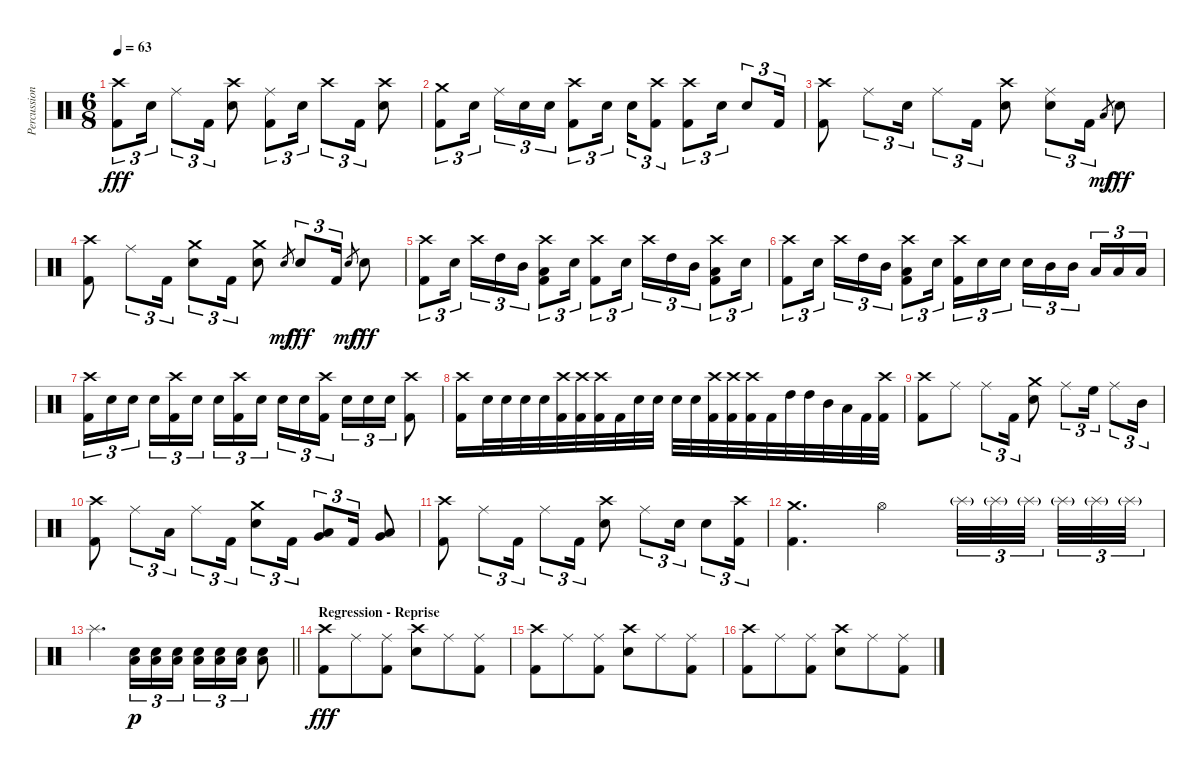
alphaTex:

\track ("Percussion" "Percussion") {instrument percussion}
\staff {score}
\articulation defaults
\ts (6 8)
\tempo 63
\clef neutral
\ks c
("Crash high (hit)" "Kick (hit) 2").8{tu (3 2) dy fff} "Electric Snare (hit)".16{tu (3 2)} "Ride (middle)".8{tu (3 2)} "Kick (hit) 2".16{tu (3 2)} ("Crash high (hit)" "Electric Snare (hit)").8 ("Ride (middle)" "Kick (hit) 2").8{tu (3 2)} "Electric Snare (hit)".16{tu (3 2)} "Crash high (hit)".8{tu (3 2)} "Kick (hit) 2".16{tu (3 2)} ("Crash high (hit)" "Electric Snare (hit)").8 |
("Crash medium (hit)" "Kick (hit) 2").8{tu (3 2)} "Electric Snare (hit)".16{tu (3 2) beam splitsecondary} "Ride (middle)".16{tu (3 2)} "Electric Snare (hit)".16{tu (3 2)} "Electric Snare (hit)".16{tu (3 2)} ("Crash high (hit)" "Kick (hit) 2").8{tu (3 2)} "Electric Snare (hit)".16{tu (3 2)} "Electric Snare (hit)".16{tu (3 2)} ("Crash high (hit)" "Kick (hit) 2").8{tu (3 2)} ("Crash high (hit)" "Kick (hit) 2").8{tu (3 2)} "Electric Snare (hit)".16{tu (3 2)} "Electric Snare (hit)".8{tu (3 2)} "Kick (hit) 2".16{tu (3 2)} |
("Crash high (hit)" "Kick (hit) 2").8 "Ride (middle)".8{tu (3 2)} "Electric Snare (hit)".16{tu (3 2)} "Ride (middle)".8{tu (3 2)} "Kick (hit) 2".16{tu (3 2)} ("Crash high (hit)" "Electric Snare (hit)").8 ("Ride (middle)" "Electric Snare (hit)").8{tu (3 2)} "Kick (hit) 2".16{tu (3 2)} "Low Tom (hit)".8{gr dy mf} "Electric Snare (hit)".8{dy fff} |
("Crash high (hit)" "Kick (hit) 2").8 "Ride (middle)".8{tu (3 2)} "Kick (hit) 2".16{tu (3 2)} ("Crash medium (hit)" "Electric Snare (hit)").8{tu (3 2)} "Kick (hit) 2".16{tu (3 2)} ("Crash medium (hit)" "Electric Snare (hit)").8 "Electric Snare (hit)".8{gr dy mf} "Electric Snare (hit)".8{tu (3 2) dy fff} "Kick (hit) 2".16{tu (3 2)} "Electric Snare (hit)".8{gr dy mf} "Electric Snare (hit)".8{dy fff} |
("Crash high (hit)" "Kick (hit) 2").8{tu (3 2)} "Electric Snare (hit)".16{tu (3 2) beam splitsecondary} "Crash high (hit)".16{tu (3 2)} "High Tom (hit)".16{tu (3 2)} "Mid Tom (hit)".16{tu (3 2)} ("Crash high (hit)" "Low Tom (hit)" "Kick (hit) 2").8{tu (3 2)} "Electric Snare (hit)".16{tu (3 2)} ("Crash high (hit)" "Kick (hit) 2").8{tu (3 2)} "Electric Snare (hit)".16{tu (3 2) beam splitsecondary} "Crash high (hit)".16{tu (3 2)} "High Tom (hit)".16{tu (3 2)} "Mid Tom (hit)".16{tu (3 2)} ("Crash high (hit)" "Low Tom (hit)" "Kick (hit) 2").8{tu (3 2)} "Electric Snare (hit)".16{tu (3 2)} |
("Crash high (hit)" "Kick (hit) 2").8{tu (3 2)} "Electric Snare (hit)".16{tu (3 2) beam splitsecondary} "Crash high (hit)".16{tu (3 2)} "High Tom (hit)".16{tu (3 2)} "Mid Tom (hit)".16{tu (3 2)} ("Crash high (hit)" "Low Tom (hit)" "Kick (hit) 2").8{tu (3 2)} "Electric Snare (hit)".16{tu (3 2)} ("Crash high (hit)" "Kick (hit) 2").16{tu (3 2)} "Electric Snare (hit)".16{tu (3 2)} "Electric Snare (hit)".16{tu (3 2) beam splitsecondary} "Electric Snare (hit)".16{tu (3 2)} "Mid Tom (hit)".16{tu (3 2)} "Mid Tom (hit)".16{tu (3 2) beam splitsecondary} "Low Tom (hit)".16{tu (3 2)} "Low Tom (hit)".16{tu (3 2)} "Low Tom (hit)".16{tu (3 2)} |
("Crash high (hit)" "Kick (hit) 2").16{tu (3 2)} "Electric Snare (hit)".16{tu (3 2)} "Electric Snare (hit)".16{tu (3 2) beam splitsecondary} "Electric Snare (hit)".16{tu (3 2)} ("Crash high (hit)" "Kick (hit) 2").16{tu (3 2)} "Electric Snare (hit)".16{tu (3 2) beam splitsecondary} "Electric Snare (hit)".16{tu (3 2)} ("Crash high (hit)" "Kick (hit) 2").16{tu (3 2)} "Electric Snare (hit)".16{tu (3 2)} "Electric Snare (hit)".16{tu (3 2)} "Electric Snare (hit)".16{tu (3 2)} ("Crash high (hit)" "Kick (hit) 2").16{tu (3 2) beam splitsecondary} "Electric Snare (hit)".16{tu (3 2)} "Electric Snare (hit)".16{tu (3 2)} "Electric Snare (hit)".16{tu (3 2)} ("Crash high (hit)" "Kick (hit) 2").8 |
("Crash high (hit)" "Kick (hit) 2").16 "Electric Snare (hit)".32 "Electric Snare (hit)".32 "Electric Snare (hit)".32 "Electric Snare (hit)".32 ("Crash high (hit)" "Kick (hit) 2").32 ("Crash high (hit)" "Kick (hit) 2").32 ("Crash high (hit)" "Kick (hit) 2").32 "Kick (hit) 2".32 "Electric Snare (hit)".32 "Electric Snare (hit)".32 "Electric Snare (hit)".32 "Electric Snare (hit)".32 ("Crash high (hit)" "Kick (hit) 2").32 ("Crash high (hit)" "Kick (hit) 2").32 ("Crash high (hit)" "Kick (hit) 2").32 "Kick (hit) 2".32 "High Tom (hit)".32 "High Tom (hit)".32 "Mid Tom (hit)".32 "Low Tom (hit)".32 "Kick (hit) 2".32 ("Crash high (hit)" "Kick (hit) 2").32 |
("Crash high (hit)" "Kick (hit) 2").8 "Ride (middle)".8 "Ride (middle)".8{tu (3 2)} "Kick (hit) 2".16{tu (3 2)} ("Crash medium (hit)" "Electric Snare (hit)").8 "Ride (middle)".8{tu (3 2)} "High Floor Tom (hit)".16{tu (3 2)} "Ride (middle)".8{tu (3 2)} "Mid Tom (hit)".16{tu (3 2)} |
("Crash high (hit)" "Kick (hit) 2").8 "Ride (middle)".8{tu (3 2)} "Low Tom (hit)".16{tu (3 2)} "Ride (middle)".8{tu (3 2)} "Kick (hit) 2".16{tu (3 2)} ("Crash medium (hit)" "Electric Snare (hit)").8{tu (3 2)} "Kick (hit) 2".16{tu (3 2)} ("Low Tom (hit)" "Very Low Tom (hit)").8{tu (3 2)} "Kick (hit) 2".16{tu (3 2)} ("Low Tom (hit)" "Very Low Tom (hit)").8 |
("Crash high (hit)" "Kick (hit) 2").8 "Ride (middle)".8{tu (3 2)} "Kick (hit) 2".16{tu (3 2)} "Ride (middle)".8{tu (3 2)} "Kick (hit) 2".16{tu (3 2)} ("Crash high (hit)" "Electric Snare (hit)").8 "Ride (middle)".8{tu (3 2)} "Electric Snare (hit)".16{tu (3 2)} "Electric Snare (hit)".8{tu (3 2)} ("Crash high (hit)" "Kick (hit) 2").16{tu (3 2)} |
("Crash medium (hit)" "Kick (hit) 2").4{d} "Hi-Hat (open)".4 "Splash (hit)"{g}.32{tu (3 2)} "Splash (hit)"{g}.32{tu (3 2)} "Splash (hit)"{g}.32{tu (3 2) beam splitsecondary} "Splash (hit)"{g}.32{tu (3 2)} "Splash (hit)"{g}.32{tu (3 2)} "Splash (hit)"{g}.32{tu (3 2)} |
\barLineRight lightlight "Splash (hit)".4{d}
("Electric Snare (hit)" "Low Floor Tom (hit)").16{tu (3 2) dy p} ("Electric Snare (hit)" "Low Floor Tom (hit)").16{tu (3 2)} ("Electric Snare (hit)" "Low Floor Tom (hit)").16{tu (3 2) beam splitsecondary} ("Electric Snare (hit)" "Low Floor Tom (hit)").16{tu (3 2)} ("Electric Snare (hit)" "Low Floor Tom (hit)").16{tu (3 2)} ("Electric Snare (hit)" "Low Floor Tom (hit)").16{tu (3 2)} ("Electric Snare (hit)" "Low Floor Tom (hit)").8 |
\section ("" "Regression - Reprise")
("Crash high (hit)" "Kick (hit) 2").8{dy fff} "Ride (middle)".8 ("Ride (middle)" "Kick (hit) 2").8 ("Crash high (hit)" "Electric Snare (hit)").8 "Ride (middle)".8 ("Ride (middle)" "Kick (hit) 2").8 |
("Crash high (hit)" "Kick (hit) 2").8 "Ride (middle)".8 ("Ride (middle)" "Kick (hit) 2").8 ("Crash high (hit)" "Electric Snare (hit)").8 "Ride (middle)".8 ("Ride (middle)" "Kick (hit) 2").8 |
("Crash high (hit)" "Kick (hit) 2").8 "Ride (middle)".8 ("Ride (middle)" "Kick (hit) 2").8 ("Crash high (hit)" "Electric Snare (hit)").8 "Ride (middle)".8 ("Ride (middle)" "Kick (hit) 2").8
